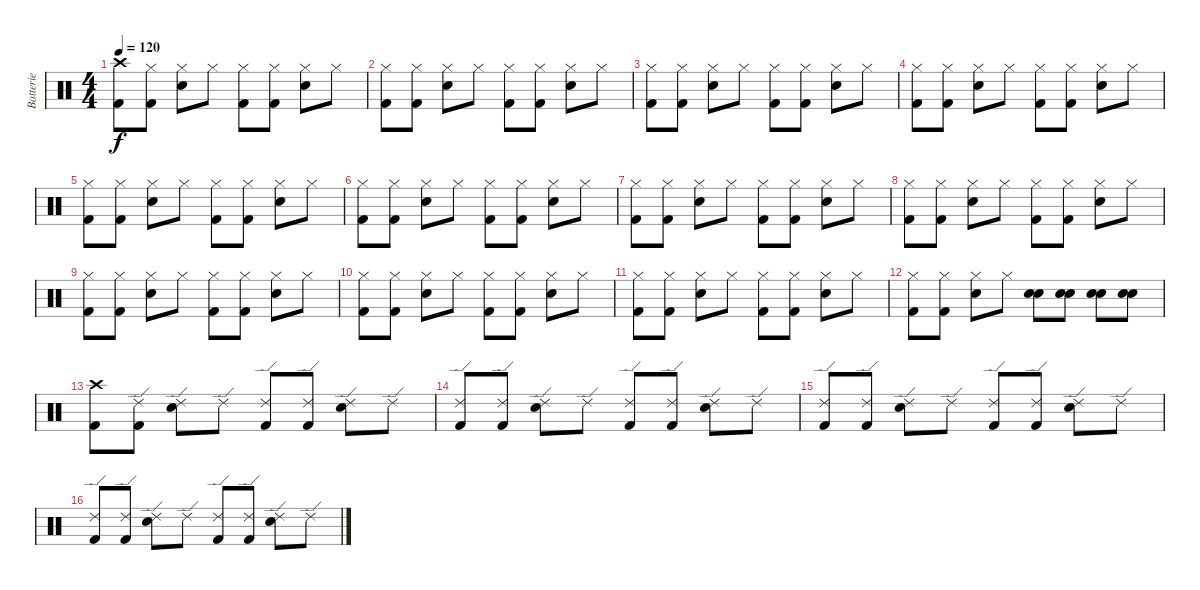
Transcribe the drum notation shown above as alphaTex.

\track ("Batterie" "Batterie") {instrument percussion}
\staff {score}
\articulation defaults
\ts (4 4)
\tempo 120
\clef neutral
\ks c
("Crash high (hit)" "Kick (hit) 2").8{dy f} ("Hi-Hat (closed)" "Kick (hit) 2").8 ("Hi-Hat (closed)" "Electric Snare (hit)").8 "Hi-Hat (closed)".8 ("Hi-Hat (closed)" "Kick (hit) 2").8 ("Hi-Hat (closed)" "Kick (hit) 2").8 ("Hi-Hat (closed)" "Electric Snare (hit)").8 "Hi-Hat (closed)".8 |
("Hi-Hat (closed)" "Kick (hit) 2").8 ("Hi-Hat (closed)" "Kick (hit) 2").8 ("Hi-Hat (closed)" "Electric Snare (hit)").8 "Hi-Hat (closed)".8 ("Hi-Hat (closed)" "Kick (hit) 2").8 ("Hi-Hat (closed)" "Kick (hit) 2").8 ("Hi-Hat (closed)" "Electric Snare (hit)").8 "Hi-Hat (closed)".8 |
("Hi-Hat (closed)" "Kick (hit) 2").8 ("Hi-Hat (closed)" "Kick (hit) 2").8 ("Hi-Hat (closed)" "Electric Snare (hit)").8 "Hi-Hat (closed)".8 ("Hi-Hat (closed)" "Kick (hit) 2").8 ("Hi-Hat (closed)" "Kick (hit) 2").8 ("Hi-Hat (closed)" "Electric Snare (hit)").8 "Hi-Hat (closed)".8 |
("Hi-Hat (closed)" "Kick (hit) 2").8 ("Hi-Hat (closed)" "Kick (hit) 2").8 ("Hi-Hat (closed)" "Electric Snare (hit)").8 "Hi-Hat (closed)".8 ("Hi-Hat (closed)" "Kick (hit) 2").8 ("Hi-Hat (closed)" "Kick (hit) 2").8 ("Hi-Hat (closed)" "Electric Snare (hit)").8 "Hi-Hat (closed)".8 |
("Hi-Hat (closed)" "Kick (hit) 2").8 ("Hi-Hat (closed)" "Kick (hit) 2").8 ("Hi-Hat (closed)" "Electric Snare (hit)").8 "Hi-Hat (closed)".8 ("Hi-Hat (closed)" "Kick (hit) 2").8 ("Hi-Hat (closed)" "Kick (hit) 2").8 ("Hi-Hat (closed)" "Electric Snare (hit)").8 "Hi-Hat (closed)".8 |
("Hi-Hat (closed)" "Kick (hit) 2").8 ("Hi-Hat (closed)" "Kick (hit) 2").8 ("Hi-Hat (closed)" "Electric Snare (hit)").8 "Hi-Hat (closed)".8 ("Hi-Hat (closed)" "Kick (hit) 2").8 ("Hi-Hat (closed)" "Kick (hit) 2").8 ("Hi-Hat (closed)" "Electric Snare (hit)").8 "Hi-Hat (closed)".8 |
("Hi-Hat (closed)" "Kick (hit) 2").8 ("Hi-Hat (closed)" "Kick (hit) 2").8 ("Hi-Hat (closed)" "Electric Snare (hit)").8 "Hi-Hat (closed)".8 ("Hi-Hat (closed)" "Kick (hit) 2").8 ("Hi-Hat (closed)" "Kick (hit) 2").8 ("Hi-Hat (closed)" "Electric Snare (hit)").8 "Hi-Hat (closed)".8 |
("Hi-Hat (closed)" "Kick (hit) 2").8 ("Hi-Hat (closed)" "Kick (hit) 2").8 ("Hi-Hat (closed)" "Electric Snare (hit)").8 "Hi-Hat (closed)".8 ("Hi-Hat (closed)" "Kick (hit) 2").8 ("Hi-Hat (closed)" "Kick (hit) 2").8 ("Hi-Hat (closed)" "Electric Snare (hit)").8 "Hi-Hat (closed)".8 |
("Hi-Hat (closed)" "Kick (hit) 2").8 ("Hi-Hat (closed)" "Kick (hit) 2").8 ("Hi-Hat (closed)" "Electric Snare (hit)").8 "Hi-Hat (closed)".8 ("Hi-Hat (closed)" "Kick (hit) 2").8 ("Hi-Hat (closed)" "Kick (hit) 2").8 ("Hi-Hat (closed)" "Electric Snare (hit)").8 "Hi-Hat (closed)".8 |
("Hi-Hat (closed)" "Kick (hit) 2").8 ("Hi-Hat (closed)" "Kick (hit) 2").8 ("Hi-Hat (closed)" "Electric Snare (hit)").8 "Hi-Hat (closed)".8 ("Hi-Hat (closed)" "Kick (hit) 2").8 ("Hi-Hat (closed)" "Kick (hit) 2").8 ("Hi-Hat (closed)" "Electric Snare (hit)").8 "Hi-Hat (closed)".8 |
("Hi-Hat (closed)" "Kick (hit) 2").8 ("Hi-Hat (closed)" "Kick (hit) 2").8 ("Hi-Hat (closed)" "Electric Snare (hit)").8 "Hi-Hat (closed)".8 ("Hi-Hat (closed)" "Kick (hit) 2").8 ("Hi-Hat (closed)" "Kick (hit) 2").8 ("Hi-Hat (closed)" "Electric Snare (hit)").8 "Hi-Hat (closed)".8 |
("Hi-Hat (closed)" "Kick (hit) 2").8 ("Hi-Hat (closed)" "Kick (hit) 2").8 ("Hi-Hat (closed)" "Electric Snare (hit)").8 "Hi-Hat (closed)".8 ("Electric Snare (hit)" "Electric Snare (hit)").8 ("Electric Snare (hit)" "Electric Snare (hit)").8 ("Electric Snare (hit)" "Electric Snare (hit)").8 ("Electric Snare (hit)" "Electric Snare (hit)").8 |
("Crash high (hit)" "Kick (hit) 2").8 ("Ride (edge) 2" "Kick (hit) 2").8 ("Ride (edge) 2" "Electric Snare (hit)").8 "Ride (edge) 2".8 ("Ride (edge) 2" "Kick (hit) 2").8 ("Ride (edge) 2" "Kick (hit) 2").8 ("Ride (edge) 2" "Electric Snare (hit)").8 "Ride (edge) 2".8 |
("Ride (edge) 2" "Kick (hit) 2").8 ("Ride (edge) 2" "Kick (hit) 2").8 ("Ride (edge) 2" "Electric Snare (hit)").8 "Ride (edge) 2".8 ("Ride (edge) 2" "Kick (hit) 2").8 ("Ride (edge) 2" "Kick (hit) 2").8 ("Ride (edge) 2" "Electric Snare (hit)").8 "Ride (edge) 2".8 |
("Ride (edge) 2" "Kick (hit) 2").8 ("Ride (edge) 2" "Kick (hit) 2").8 ("Ride (edge) 2" "Electric Snare (hit)").8 "Ride (edge) 2".8 ("Ride (edge) 2" "Kick (hit) 2").8 ("Ride (edge) 2" "Kick (hit) 2").8 ("Ride (edge) 2" "Electric Snare (hit)").8 "Ride (edge) 2".8 |
("Ride (edge) 2" "Kick (hit) 2").8 ("Ride (edge) 2" "Kick (hit) 2").8 ("Ride (edge) 2" "Electric Snare (hit)").8 "Ride (edge) 2".8 ("Ride (edge) 2" "Kick (hit) 2").8 ("Ride (edge) 2" "Kick (hit) 2").8 ("Ride (edge) 2" "Electric Snare (hit)").8 "Ride (edge) 2".8
